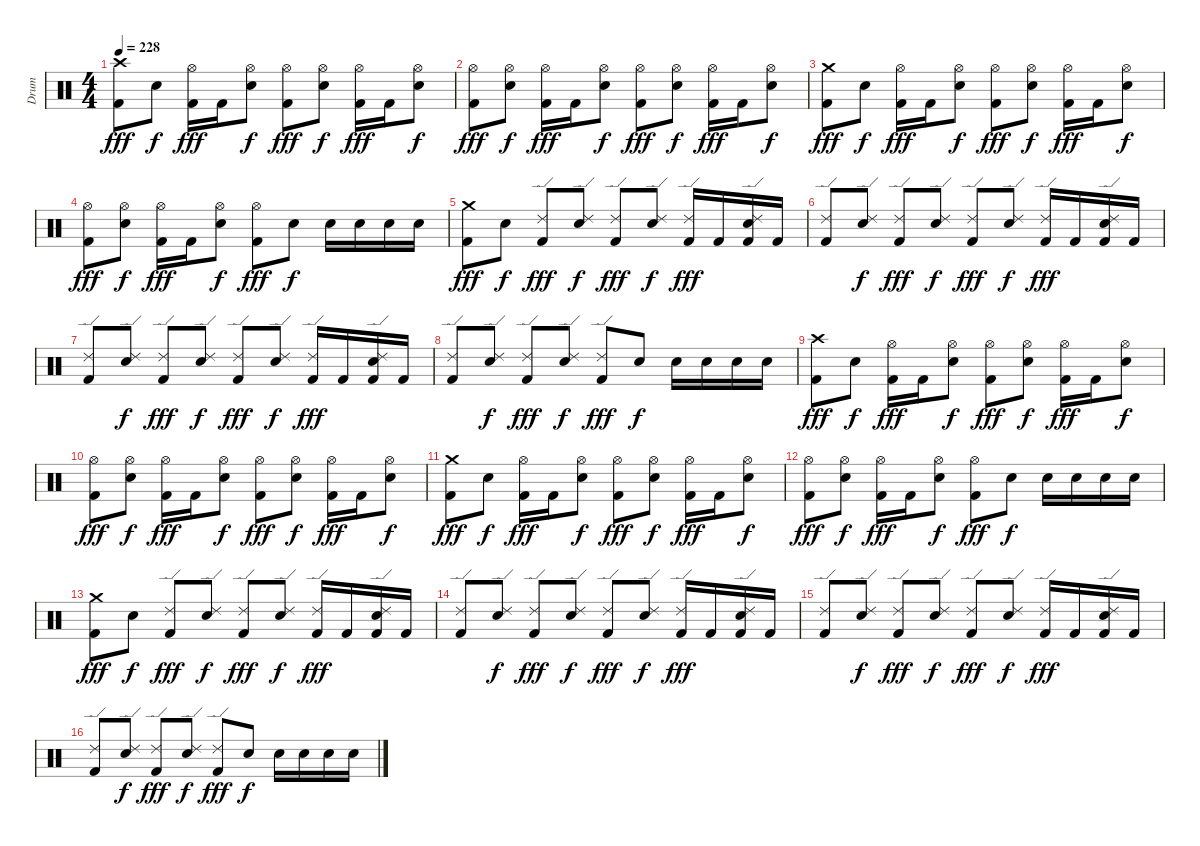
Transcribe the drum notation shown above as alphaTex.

\track ("Drum" "Drum") {instrument percussion}
\staff {score}
\articulation defaults
\ts (4 4)
\tempo 228
\clef neutral
\ks c
("Crash high (hit)" "Kick (hit) 2").8{dy fff} "Snare (hit) 2".8{dy f} ("Hi-Hat (open)" "Kick (hit) 2").16{dy fff} "Kick (hit) 2".16 ("Hi-Hat (open)" "Snare (hit) 2").8{dy f} ("Hi-Hat (open)" "Kick (hit) 2").8{dy fff} ("Hi-Hat (open)" "Snare (hit) 2").8{dy f} ("Hi-Hat (open)" "Kick (hit) 2").16{dy fff} "Kick (hit) 2".16 ("Hi-Hat (open)" "Snare (hit) 2").8{dy f} |
("Hi-Hat (open)" "Kick (hit) 2").8{dy fff} ("Hi-Hat (open)" "Snare (hit) 2").8{dy f} ("Hi-Hat (open)" "Kick (hit) 2").16{dy fff} "Kick (hit) 2".16 ("Hi-Hat (open)" "Snare (hit) 2").8{dy f} ("Hi-Hat (open)" "Kick (hit) 2").8{dy fff} ("Hi-Hat (open)" "Snare (hit) 2").8{dy f} ("Hi-Hat (open)" "Kick (hit) 2").16{dy fff} "Kick (hit) 2".16 ("Hi-Hat (open)" "Snare (hit) 2").8{dy f} |
("Crash medium (hit)" "Kick (hit) 2").8{dy fff} "Snare (hit) 2".8{dy f} ("Hi-Hat (open)" "Kick (hit) 2").16{dy fff} "Kick (hit) 2".16 ("Hi-Hat (open)" "Snare (hit) 2").8{dy f} ("Hi-Hat (open)" "Kick (hit) 2").8{dy fff} ("Hi-Hat (open)" "Snare (hit) 2").8{dy f} ("Hi-Hat (open)" "Kick (hit) 2").16{dy fff} "Kick (hit) 2".16 ("Hi-Hat (open)" "Snare (hit) 2").8{dy f} |
("Hi-Hat (open)" "Kick (hit) 2").8{dy fff} ("Hi-Hat (open)" "Snare (hit) 2").8{dy f} ("Hi-Hat (open)" "Kick (hit) 2").16{dy fff} "Kick (hit) 2".16 ("Hi-Hat (open)" "Snare (hit) 2").8{dy f} ("Hi-Hat (open)" "Kick (hit) 2").8{dy fff} "Snare (hit) 2".8{dy f} "Snare (hit) 2".16 "Snare (hit) 2".16 "Snare (hit) 2".16 "Snare (hit) 2".16 |
("Crash medium (hit)" "Kick (hit) 2").8{dy fff} "Snare (hit) 2".8{dy f} ("Ride (edge) 2" "Kick (hit) 2").8{dy fff} ("Ride (edge) 2" "Snare (hit) 2").8{dy f} ("Ride (edge) 2" "Kick (hit) 2").8{dy fff} ("Ride (edge) 2" "Snare (hit) 2").8{dy f} ("Ride (edge) 2" "Kick (hit) 2").16{dy fff} "Kick (hit) 2".16 ("Ride (edge) 2" "Snare (hit) 2" "Kick (hit) 2").16 "Kick (hit) 2".16 |
("Ride (edge) 2" "Kick (hit) 2").8 ("Ride (edge) 2" "Snare (hit) 2").8{dy f} ("Ride (edge) 2" "Kick (hit) 2").8{dy fff} ("Ride (edge) 2" "Snare (hit) 2").8{dy f} ("Ride (edge) 2" "Kick (hit) 2").8{dy fff} ("Ride (edge) 2" "Snare (hit) 2").8{dy f} ("Ride (edge) 2" "Kick (hit) 2").16{dy fff} "Kick (hit) 2".16 ("Ride (edge) 2" "Snare (hit) 2" "Kick (hit) 2").16 "Kick (hit) 2".16 |
("Ride (edge) 2" "Kick (hit) 2").8 ("Ride (edge) 2" "Snare (hit) 2").8{dy f} ("Ride (edge) 2" "Kick (hit) 2").8{dy fff} ("Ride (edge) 2" "Snare (hit) 2").8{dy f} ("Ride (edge) 2" "Kick (hit) 2").8{dy fff} ("Ride (edge) 2" "Snare (hit) 2").8{dy f} ("Ride (edge) 2" "Kick (hit) 2").16{dy fff} "Kick (hit) 2".16 ("Ride (edge) 2" "Snare (hit) 2" "Kick (hit) 2").16 "Kick (hit) 2".16 |
("Ride (edge) 2" "Kick (hit) 2").8 ("Ride (edge) 2" "Snare (hit) 2").8{dy f} ("Ride (edge) 2" "Kick (hit) 2").8{dy fff} ("Ride (edge) 2" "Snare (hit) 2").8{dy f} ("Ride (edge) 2" "Kick (hit) 2").8{dy fff} "Snare (hit) 2".8{dy f} "Snare (hit) 2".16 "Snare (hit) 2".16 "Snare (hit) 2".16 "Snare (hit) 2".16 |
("Crash high (hit)" "Kick (hit) 2").8{dy fff} "Snare (hit) 2".8{dy f} ("Hi-Hat (open)" "Kick (hit) 2").16{dy fff} "Kick (hit) 2".16 ("Hi-Hat (open)" "Snare (hit) 2").8{dy f} ("Hi-Hat (open)" "Kick (hit) 2").8{dy fff} ("Hi-Hat (open)" "Snare (hit) 2").8{dy f} ("Hi-Hat (open)" "Kick (hit) 2").16{dy fff} "Kick (hit) 2".16 ("Hi-Hat (open)" "Snare (hit) 2").8{dy f} |
("Hi-Hat (open)" "Kick (hit) 2").8{dy fff} ("Hi-Hat (open)" "Snare (hit) 2").8{dy f} ("Hi-Hat (open)" "Kick (hit) 2").16{dy fff} "Kick (hit) 2".16 ("Hi-Hat (open)" "Snare (hit) 2").8{dy f} ("Hi-Hat (open)" "Kick (hit) 2").8{dy fff} ("Hi-Hat (open)" "Snare (hit) 2").8{dy f} ("Hi-Hat (open)" "Kick (hit) 2").16{dy fff} "Kick (hit) 2".16 ("Hi-Hat (open)" "Snare (hit) 2").8{dy f} |
("Crash medium (hit)" "Kick (hit) 2").8{dy fff} "Snare (hit) 2".8{dy f} ("Hi-Hat (open)" "Kick (hit) 2").16{dy fff} "Kick (hit) 2".16 ("Hi-Hat (open)" "Snare (hit) 2").8{dy f} ("Hi-Hat (open)" "Kick (hit) 2").8{dy fff} ("Hi-Hat (open)" "Snare (hit) 2").8{dy f} ("Hi-Hat (open)" "Kick (hit) 2").16{dy fff} "Kick (hit) 2".16 ("Hi-Hat (open)" "Snare (hit) 2").8{dy f} |
("Hi-Hat (open)" "Kick (hit) 2").8{dy fff} ("Hi-Hat (open)" "Snare (hit) 2").8{dy f} ("Hi-Hat (open)" "Kick (hit) 2").16{dy fff} "Kick (hit) 2".16 ("Hi-Hat (open)" "Snare (hit) 2").8{dy f} ("Hi-Hat (open)" "Kick (hit) 2").8{dy fff} "Snare (hit) 2".8{dy f} "Snare (hit) 2".16 "Snare (hit) 2".16 "Snare (hit) 2".16 "Snare (hit) 2".16 |
("Crash medium (hit)" "Kick (hit) 2").8{dy fff} "Snare (hit) 2".8{dy f} ("Ride (edge) 2" "Kick (hit) 2").8{dy fff} ("Ride (edge) 2" "Snare (hit) 2").8{dy f} ("Ride (edge) 2" "Kick (hit) 2").8{dy fff} ("Ride (edge) 2" "Snare (hit) 2").8{dy f} ("Ride (edge) 2" "Kick (hit) 2").16{dy fff} "Kick (hit) 2".16 ("Ride (edge) 2" "Snare (hit) 2" "Kick (hit) 2").16 "Kick (hit) 2".16 |
("Ride (edge) 2" "Kick (hit) 2").8 ("Ride (edge) 2" "Snare (hit) 2").8{dy f} ("Ride (edge) 2" "Kick (hit) 2").8{dy fff} ("Ride (edge) 2" "Snare (hit) 2").8{dy f} ("Ride (edge) 2" "Kick (hit) 2").8{dy fff} ("Ride (edge) 2" "Snare (hit) 2").8{dy f} ("Ride (edge) 2" "Kick (hit) 2").16{dy fff} "Kick (hit) 2".16 ("Ride (edge) 2" "Snare (hit) 2" "Kick (hit) 2").16 "Kick (hit) 2".16 |
("Ride (edge) 2" "Kick (hit) 2").8 ("Ride (edge) 2" "Snare (hit) 2").8{dy f} ("Ride (edge) 2" "Kick (hit) 2").8{dy fff} ("Ride (edge) 2" "Snare (hit) 2").8{dy f} ("Ride (edge) 2" "Kick (hit) 2").8{dy fff} ("Ride (edge) 2" "Snare (hit) 2").8{dy f} ("Ride (edge) 2" "Kick (hit) 2").16{dy fff} "Kick (hit) 2".16 ("Ride (edge) 2" "Snare (hit) 2" "Kick (hit) 2").16 "Kick (hit) 2".16 |
("Ride (edge) 2" "Kick (hit) 2").8 ("Ride (edge) 2" "Snare (hit) 2").8{dy f} ("Ride (edge) 2" "Kick (hit) 2").8{dy fff} ("Ride (edge) 2" "Snare (hit) 2").8{dy f} ("Ride (edge) 2" "Kick (hit) 2").8{dy fff} "Snare (hit) 2".8{dy f} "Snare (hit) 2".16 "Snare (hit) 2".16 "Snare (hit) 2".16 "Snare (hit) 2".16
